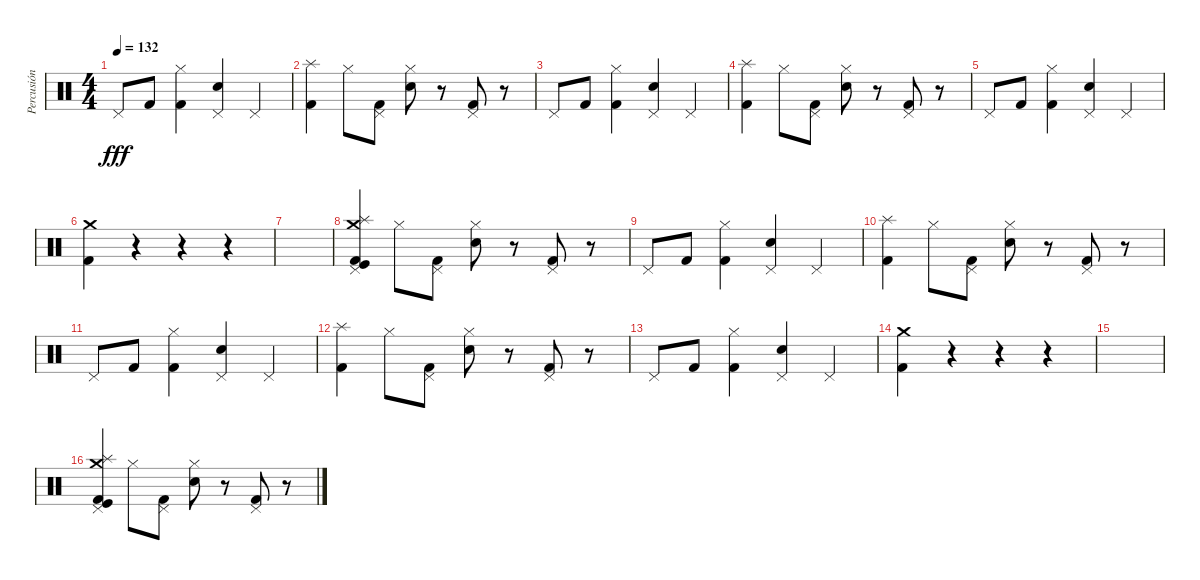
\track ("Percusión" "Percusión") {instrument percussion}
\staff {score}
\articulation defaults
\ts (4 4)
\tempo 132
\clef neutral
\ks c "Pedal Hi-Hat (hit)".8{dy fff} "Kick (hit) 2".8
("Hi-Hat (closed)" "Kick (hit) 2").4 ("Pedal Hi-Hat (hit)" "Snare (hit) 2").4 "Pedal Hi-Hat (hit)".4 |
("Splash (hit)" "Kick (hit) 2").4 "Hi-Hat (closed)".8 ("Pedal Hi-Hat (hit)" "Kick (hit) 2").8 ("Hi-Hat (closed)" "Snare (hit) 2").8 r.8 ("Pedal Hi-Hat (hit)" "Kick (hit) 2").8 r.8 |
"Pedal Hi-Hat (hit)".8 "Kick (hit) 2".8 ("Hi-Hat (closed)" "Kick (hit) 2").4 ("Pedal Hi-Hat (hit)" "Snare (hit) 2").4 "Pedal Hi-Hat (hit)".4 |
("Splash (hit)" "Kick (hit) 2").4 "Hi-Hat (closed)".8 ("Pedal Hi-Hat (hit)" "Kick (hit) 2").8 ("Hi-Hat (closed)" "Snare (hit) 2").8 r.8 ("Pedal Hi-Hat (hit)" "Kick (hit) 2").8 r.8 |
"Pedal Hi-Hat (hit)".8 "Kick (hit) 2".8 ("Hi-Hat (closed)" "Kick (hit) 2").4 ("Pedal Hi-Hat (hit)" "Snare (hit) 2").4 "Pedal Hi-Hat (hit)".4 |
("Crash medium (hit)" "Kick (hit) 2").4 r.4 r.4 r.4 |
|
("Splash (hit)" "Crash medium (hit)" "Pedal Hi-Hat (hit)" "Kick (hit) 2" "Kick (hit)").4 "Hi-Hat (closed)".8 ("Pedal Hi-Hat (hit)" "Kick (hit) 2").8 ("Hi-Hat (closed)" "Snare (hit) 2").8 r.8 ("Pedal Hi-Hat (hit)" "Kick (hit) 2").8 r.8 |
"Pedal Hi-Hat (hit)".8 "Kick (hit) 2".8 ("Hi-Hat (closed)" "Kick (hit) 2").4 ("Pedal Hi-Hat (hit)" "Snare (hit) 2").4 "Pedal Hi-Hat (hit)".4 |
("Splash (hit)" "Kick (hit) 2").4 "Hi-Hat (closed)".8 ("Pedal Hi-Hat (hit)" "Kick (hit) 2").8 ("Hi-Hat (closed)" "Snare (hit) 2").8 r.8 ("Pedal Hi-Hat (hit)" "Kick (hit) 2").8 r.8 |
"Pedal Hi-Hat (hit)".8 "Kick (hit) 2".8 ("Hi-Hat (closed)" "Kick (hit) 2").4 ("Pedal Hi-Hat (hit)" "Snare (hit) 2").4 "Pedal Hi-Hat (hit)".4 |
("Splash (hit)" "Kick (hit) 2").4 "Hi-Hat (closed)".8 ("Pedal Hi-Hat (hit)" "Kick (hit) 2").8 ("Hi-Hat (closed)" "Snare (hit) 2").8 r.8 ("Pedal Hi-Hat (hit)" "Kick (hit) 2").8 r.8 |
"Pedal Hi-Hat (hit)".8 "Kick (hit) 2".8 ("Hi-Hat (closed)" "Kick (hit) 2").4 ("Pedal Hi-Hat (hit)" "Snare (hit) 2").4 "Pedal Hi-Hat (hit)".4 |
("Crash medium (hit)" "Kick (hit) 2").4 r.4 r.4 r.4 |
|
("Splash (hit)" "Crash medium (hit)" "Pedal Hi-Hat (hit)" "Kick (hit) 2" "Kick (hit)").4 "Hi-Hat (closed)".8 ("Pedal Hi-Hat (hit)" "Kick (hit) 2").8 ("Hi-Hat (closed)" "Snare (hit) 2").8 r.8 ("Pedal Hi-Hat (hit)" "Kick (hit) 2").8 r.8
